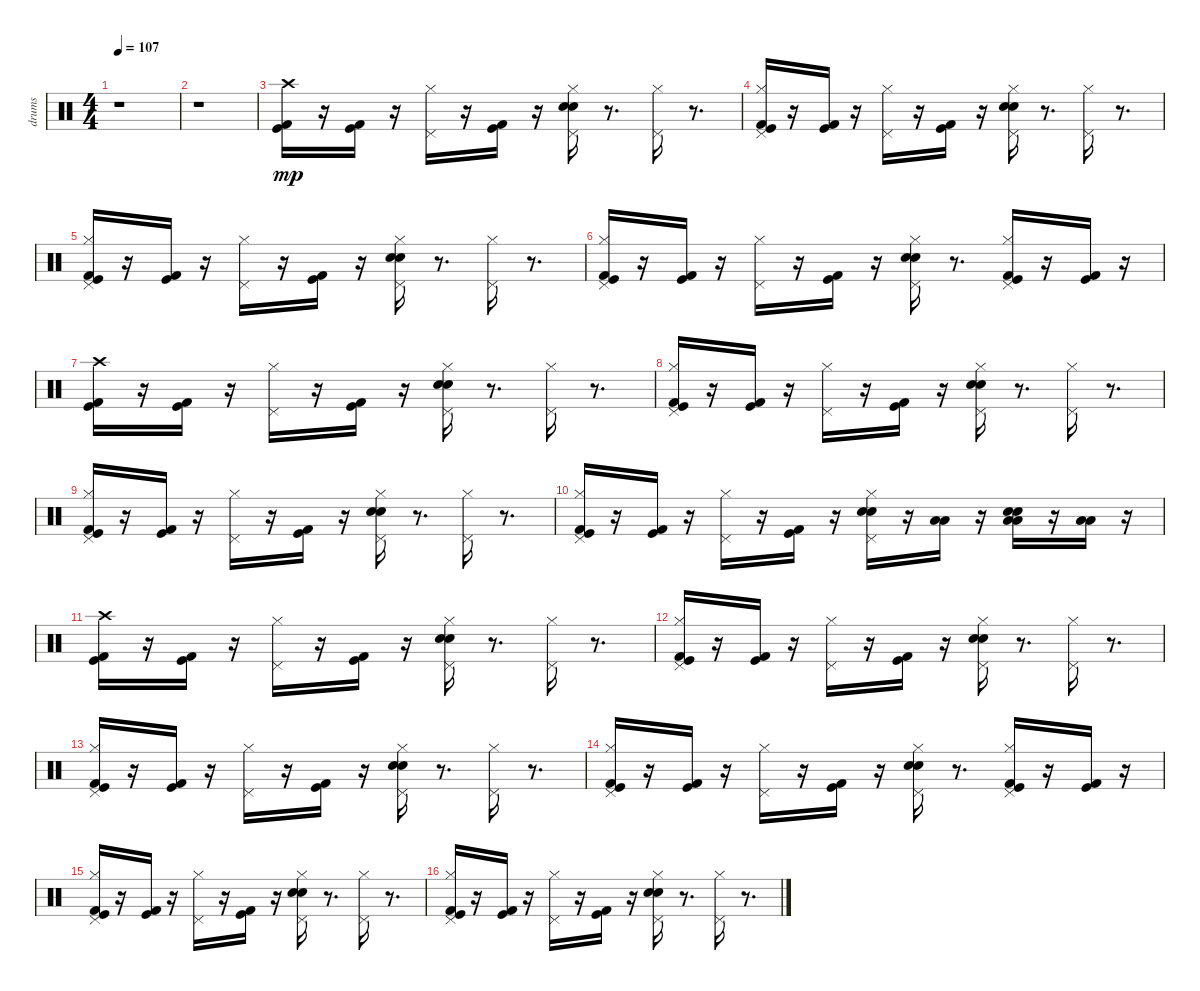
\track ("drums" "drums") {instrument percussion}
\staff {score}
\articulation defaults
\ts (4 4)
\tempo 107
\clef neutral
\ks c
r.1{dy pp} |
r.1 |
("Crash high (hit)" "Kick (hit) 2" "Kick (hit)").16{dy mp} r.16 ("Kick (hit) 2" "Kick (hit)").16 r.16 ("Hi-Hat (closed)" "Pedal Hi-Hat (hit)").16 r.16 ("Kick (hit) 2" "Kick (hit)").16 r.16 ("Electric Snare (hit)" "Hi-Hat (closed)" "Snare (hit) 2" "Pedal Hi-Hat (hit)").16 r.8{d} ("Hi-Hat (closed)" "Pedal Hi-Hat (hit)").16 r.8{d} |
("Hi-Hat (closed)" "Kick (hit) 2" "Kick (hit)" "Pedal Hi-Hat (hit)").16 r.16 ("Kick (hit) 2" "Kick (hit)").16 r.16 ("Hi-Hat (closed)" "Pedal Hi-Hat (hit)").16 r.16 ("Kick (hit) 2" "Kick (hit)").16 r.16 ("Electric Snare (hit)" "Hi-Hat (closed)" "Snare (hit) 2" "Pedal Hi-Hat (hit)").16 r.8{d} ("Hi-Hat (closed)" "Pedal Hi-Hat (hit)").16 r.8{d} |
("Hi-Hat (closed)" "Kick (hit) 2" "Kick (hit)" "Pedal Hi-Hat (hit)").16 r.16 ("Kick (hit) 2" "Kick (hit)").16 r.16 ("Hi-Hat (closed)" "Pedal Hi-Hat (hit)").16 r.16 ("Kick (hit) 2" "Kick (hit)").16 r.16 ("Electric Snare (hit)" "Hi-Hat (closed)" "Snare (hit) 2" "Pedal Hi-Hat (hit)").16 r.8{d} ("Hi-Hat (closed)" "Pedal Hi-Hat (hit)").16 r.8{d} |
("Hi-Hat (closed)" "Kick (hit) 2" "Kick (hit)" "Pedal Hi-Hat (hit)").16 r.16 ("Kick (hit) 2" "Kick (hit)").16 r.16 ("Hi-Hat (closed)" "Pedal Hi-Hat (hit)").16 r.16 ("Kick (hit) 2" "Kick (hit)").16 r.16 ("Electric Snare (hit)" "Hi-Hat (closed)" "Snare (hit) 2" "Pedal Hi-Hat (hit)").16 r.8{d} ("Hi-Hat (closed)" "Kick (hit) 2" "Kick (hit)" "Pedal Hi-Hat (hit)").16 r.16 ("Kick (hit) 2" "Kick (hit)").16 r.16 |
("Crash high (hit)" "Kick (hit) 2" "Kick (hit)").16 r.16 ("Kick (hit) 2" "Kick (hit)").16 r.16 ("Hi-Hat (closed)" "Pedal Hi-Hat (hit)").16 r.16 ("Kick (hit) 2" "Kick (hit)").16 r.16 ("Electric Snare (hit)" "Hi-Hat (closed)" "Snare (hit) 2" "Pedal Hi-Hat (hit)").16 r.8{d} ("Hi-Hat (closed)" "Pedal Hi-Hat (hit)").16 r.8{d} |
("Hi-Hat (closed)" "Kick (hit) 2" "Kick (hit)" "Pedal Hi-Hat (hit)").16 r.16 ("Kick (hit) 2" "Kick (hit)").16 r.16 ("Hi-Hat (closed)" "Pedal Hi-Hat (hit)").16 r.16 ("Kick (hit) 2" "Kick (hit)").16 r.16 ("Electric Snare (hit)" "Hi-Hat (closed)" "Snare (hit) 2" "Pedal Hi-Hat (hit)").16 r.8{d} ("Hi-Hat (closed)" "Pedal Hi-Hat (hit)").16 r.8{d} |
("Hi-Hat (closed)" "Kick (hit) 2" "Kick (hit)" "Pedal Hi-Hat (hit)").16 r.16 ("Kick (hit) 2" "Kick (hit)").16 r.16 ("Hi-Hat (closed)" "Pedal Hi-Hat (hit)").16 r.16 ("Kick (hit) 2" "Kick (hit)").16 r.16 ("Electric Snare (hit)" "Hi-Hat (closed)" "Snare (hit) 2" "Pedal Hi-Hat (hit)").16 r.8{d} ("Hi-Hat (closed)" "Pedal Hi-Hat (hit)").16 r.8{d} |
("Hi-Hat (closed)" "Kick (hit) 2" "Kick (hit)" "Pedal Hi-Hat (hit)").16 r.16 ("Kick (hit) 2" "Kick (hit)").16 r.16 ("Hi-Hat (closed)" "Pedal Hi-Hat (hit)").16 r.16 ("Kick (hit) 2" "Kick (hit)").16 r.16 ("Electric Snare (hit)" "Hi-Hat (closed)" "Snare (hit) 2" "Pedal Hi-Hat (hit)").16 r.16 ("Low Floor Tom (hit)" "Low Tom (hit)").16 r.16 ("Low Tom (hit)" "Low Floor Tom (hit)" "Snare (hit) 2" "Electric Snare (hit)").16 r.16 ("Low Floor Tom (hit)" "Low Tom (hit)").16 r.16 |
("Crash high (hit)" "Kick (hit) 2" "Kick (hit)").16 r.16 ("Kick (hit) 2" "Kick (hit)").16 r.16 ("Hi-Hat (closed)" "Pedal Hi-Hat (hit)").16 r.16 ("Kick (hit) 2" "Kick (hit)").16 r.16 ("Electric Snare (hit)" "Hi-Hat (closed)" "Snare (hit) 2" "Pedal Hi-Hat (hit)").16 r.8{d} ("Hi-Hat (closed)" "Pedal Hi-Hat (hit)").16 r.8{d} |
("Hi-Hat (closed)" "Kick (hit) 2" "Kick (hit)" "Pedal Hi-Hat (hit)").16 r.16 ("Kick (hit) 2" "Kick (hit)").16 r.16 ("Hi-Hat (closed)" "Pedal Hi-Hat (hit)").16 r.16 ("Kick (hit) 2" "Kick (hit)").16 r.16 ("Electric Snare (hit)" "Hi-Hat (closed)" "Snare (hit) 2" "Pedal Hi-Hat (hit)").16 r.8{d} ("Hi-Hat (closed)" "Pedal Hi-Hat (hit)").16 r.8{d} |
("Hi-Hat (closed)" "Kick (hit) 2" "Kick (hit)" "Pedal Hi-Hat (hit)").16 r.16 ("Kick (hit) 2" "Kick (hit)").16 r.16 ("Hi-Hat (closed)" "Pedal Hi-Hat (hit)").16 r.16 ("Kick (hit) 2" "Kick (hit)").16 r.16 ("Electric Snare (hit)" "Hi-Hat (closed)" "Snare (hit) 2" "Pedal Hi-Hat (hit)").16 r.8{d} ("Hi-Hat (closed)" "Pedal Hi-Hat (hit)").16 r.8{d} |
("Hi-Hat (closed)" "Kick (hit) 2" "Kick (hit)" "Pedal Hi-Hat (hit)").16 r.16 ("Kick (hit) 2" "Kick (hit)").16 r.16 ("Hi-Hat (closed)" "Pedal Hi-Hat (hit)").16 r.16 ("Kick (hit) 2" "Kick (hit)").16 r.16 ("Electric Snare (hit)" "Hi-Hat (closed)" "Snare (hit) 2" "Pedal Hi-Hat (hit)").16 r.8{d} ("Hi-Hat (closed)" "Kick (hit) 2" "Kick (hit)" "Pedal Hi-Hat (hit)").16 r.16 ("Kick (hit) 2" "Kick (hit)").16 r.16 |
("Hi-Hat (closed)" "Kick (hit) 2" "Kick (hit)" "Pedal Hi-Hat (hit)").16 r.16 ("Kick (hit) 2" "Kick (hit)").16 r.16 ("Hi-Hat (closed)" "Pedal Hi-Hat (hit)").16 r.16 ("Kick (hit) 2" "Kick (hit)").16 r.16 ("Electric Snare (hit)" "Hi-Hat (closed)" "Snare (hit) 2" "Pedal Hi-Hat (hit)").16 r.8{d} ("Hi-Hat (closed)" "Pedal Hi-Hat (hit)").16 r.8{d} |
("Hi-Hat (closed)" "Kick (hit) 2" "Kick (hit)" "Pedal Hi-Hat (hit)").16 r.16 ("Kick (hit) 2" "Kick (hit)").16 r.16 ("Hi-Hat (closed)" "Pedal Hi-Hat (hit)").16 r.16 ("Kick (hit) 2" "Kick (hit)").16 r.16 ("Electric Snare (hit)" "Hi-Hat (closed)" "Snare (hit) 2" "Pedal Hi-Hat (hit)").16 r.8{d} ("Hi-Hat (closed)" "Pedal Hi-Hat (hit)").16 r.8{d}
